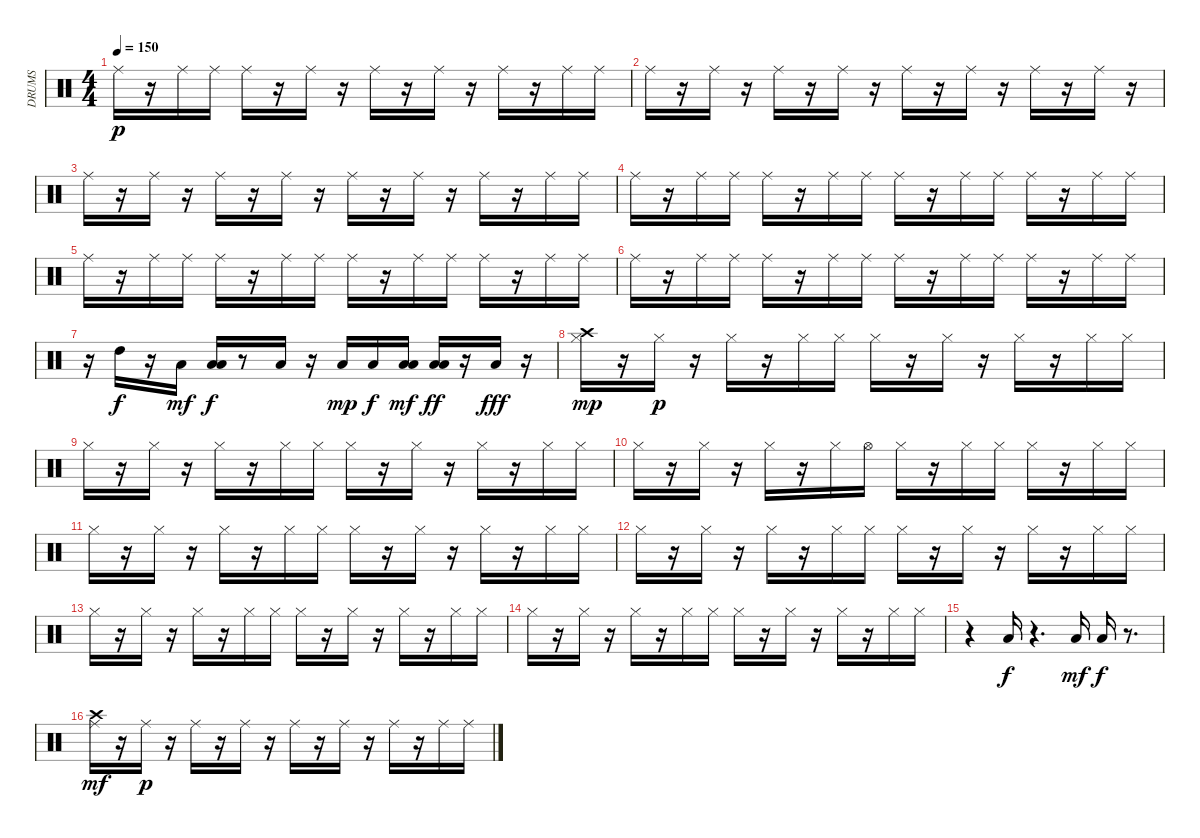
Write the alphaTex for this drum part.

\track ("DRUMS" "DRUMS") {instrument percussion}
\staff {score}
\articulation defaults
\ts (4 4)
\tempo 150
\clef neutral
\ks c "Ride (middle)".16{dy p}
r.16 "Ride (middle)".16 "Ride (middle)".16 "Ride (middle)".16 r.16 "Ride (middle)".16 r.16 "Ride (middle)".16 r.16 "Ride (middle)".16 r.16 "Ride (middle)".16 r.16 "Ride (middle)".16 "Ride (middle)".16 |
"Ride (middle)".16 r.16 "Ride (middle)".16 r.16 "Ride (middle)".16 r.16 "Ride (middle)".16 r.16 "Ride (middle)".16 r.16 "Ride (middle)".16 r.16 "Ride (middle)".16 r.16 "Ride (middle)".16 r.16 |
"Ride (middle)".16 r.16 "Ride (middle)".16 r.16 "Ride (middle)".16 r.16 "Ride (middle)".16 r.16 "Ride (middle)".16 r.16 "Ride (middle)".16 r.16 "Ride (middle)".16 r.16 "Ride (middle)".16 "Ride (middle)".16 |
"Ride (middle)".16 r.16 "Ride (middle)".16 "Ride (middle)".16 "Ride (middle)".16 r.16 "Ride (middle)".16 "Ride (middle)".16 "Ride (middle)".16 r.16 "Ride (middle)".16 "Ride (middle)".16 "Ride (middle)".16 r.16 "Ride (middle)".16 "Ride (middle)".16 |
"Ride (middle)".16 r.16 "Ride (middle)".16 "Ride (middle)".16 "Ride (middle)".16 r.16 "Ride (middle)".16 "Ride (middle)".16 "Ride (middle)".16 r.16 "Ride (middle)".16 "Ride (middle)".16 "Ride (middle)".16 r.16 "Ride (middle)".16 "Ride (middle)".16 |
"Ride (middle)".16 r.16 "Ride (middle)".16 "Ride (middle)".16 "Ride (middle)".16 r.16 "Ride (middle)".16 "Ride (middle)".16 "Ride (middle)".16 r.16 "Ride (middle)".16 "Ride (middle)".16 "Ride (middle)".16 r.16 "Ride (middle)".16 "Ride (middle)".16 |
r.16 "High Tom (hit)".16{dy f} r.16 "Low Tom (hit)".16{dy mf} ("Low Tom (hit)" "Low Floor Tom (hit)").16{dy f} r.8 "Low Tom (hit)".16 r.16 "Low Floor Tom (hit)".16{dy mp} "Low Floor Tom (hit)".16{dy f} ("Low Floor Tom (hit)" "Low Floor Tom (hit)").16{dy mf} ("Low Floor Tom (hit)" "Low Floor Tom (hit)").16{dy ff} r.16 "Low Floor Tom (hit)".16{dy fff} r.16 |
("Hi-Hat (closed)" "Crash high (hit)").16{dy mp} r.16 "Hi-Hat (closed)".16{dy p} r.16 "Hi-Hat (closed)".16 r.16 "Hi-Hat (closed)".16 "Hi-Hat (closed)".16 "Hi-Hat (closed)".16 r.16 "Hi-Hat (closed)".16 r.16 "Hi-Hat (closed)".16 r.16 "Hi-Hat (closed)".16 "Hi-Hat (closed)".16 |
"Hi-Hat (closed)".16 r.16 "Hi-Hat (closed)".16 r.16 "Hi-Hat (closed)".16 r.16 "Hi-Hat (closed)".16 "Hi-Hat (closed)".16 "Hi-Hat (closed)".16 r.16 "Hi-Hat (closed)".16 r.16 "Hi-Hat (closed)".16 r.16 "Hi-Hat (closed)".16 "Hi-Hat (closed)".16 |
"Hi-Hat (closed)".16 r.16 "Hi-Hat (closed)".16 r.16 "Hi-Hat (closed)".16 r.16 "Hi-Hat (closed)".16 "Hi-Hat (open)".16 "Hi-Hat (closed)".16 r.16 "Hi-Hat (closed)".16 "Hi-Hat (closed)".16 "Hi-Hat (closed)".16 r.16 "Hi-Hat (closed)".16 "Hi-Hat (closed)".16 |
"Hi-Hat (closed)".16 r.16 "Hi-Hat (closed)".16 r.16 "Hi-Hat (closed)".16 r.16 "Hi-Hat (closed)".16 "Hi-Hat (closed)".16 "Hi-Hat (closed)".16 r.16 "Hi-Hat (closed)".16 r.16 "Hi-Hat (closed)".16 r.16 "Hi-Hat (closed)".16 "Hi-Hat (closed)".16 |
"Hi-Hat (closed)".16 r.16 "Hi-Hat (closed)".16 r.16 "Hi-Hat (closed)".16 r.16 "Hi-Hat (closed)".16 "Hi-Hat (closed)".16 "Hi-Hat (closed)".16 r.16 "Hi-Hat (closed)".16 r.16 "Hi-Hat (closed)".16 r.16 "Hi-Hat (closed)".16 "Hi-Hat (closed)".16 |
"Hi-Hat (closed)".16 r.16 "Hi-Hat (closed)".16 r.16 "Hi-Hat (closed)".16 r.16 "Hi-Hat (closed)".16 "Hi-Hat (closed)".16 "Hi-Hat (closed)".16 r.16 "Hi-Hat (closed)".16 r.16 "Hi-Hat (closed)".16 r.16 "Hi-Hat (closed)".16 "Hi-Hat (closed)".16 |
"Hi-Hat (closed)".16 r.16 "Hi-Hat (closed)".16 r.16 "Hi-Hat (closed)".16 r.16 "Hi-Hat (closed)".16 "Hi-Hat (closed)".16 "Hi-Hat (closed)".16 r.16 "Hi-Hat (closed)".16 r.16 "Hi-Hat (closed)".16 r.16 "Hi-Hat (closed)".16 "Hi-Hat (closed)".16 |
r.4 "Low Floor Tom (hit)".16{dy f} r.4{d} "Low Floor Tom (hit)".16{dy mf} "Low Floor Tom (hit)".16{dy f} r.8{d} |
("Ride (middle)" "Crash high (hit)").16{dy mf} r.16 "Ride (middle)".16{dy p} r.16 "Ride (middle)".16 r.16 "Ride (middle)".16 r.16 "Ride (middle)".16 r.16 "Ride (middle)".16 r.16 "Ride (middle)".16 r.16 "Ride (middle)".16 "Ride (middle)".16
